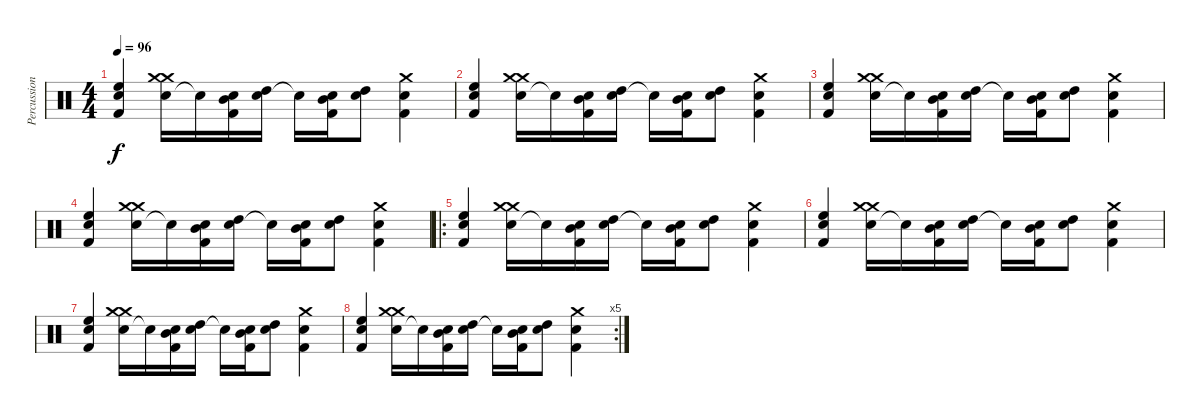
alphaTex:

\track ("Percussion" "Percussion") {instrument percussion}
\staff {score}
\articulation defaults
\ts (4 4)
\tempo 96
\clef neutral
\ks c
("Electric Snare (hit)" "High Floor Tom (hit)" "Kick (hit) 2").4{dy f} ("Electric Snare (hit)" "Crash medium (hit)" "Crash medium (hit)").16 "Electric Snare (hit)"{t}.16 ("Electric Snare (hit)" "Mid Tom (hit)" "Kick (hit) 2").16 ("Electric Snare (hit)" "High Tom (hit)").16 "Electric Snare (hit)"{t}.16 ("Electric Snare (hit)" "Mid Tom (hit)" "Kick (hit) 2").16 ("Electric Snare (hit)" "High Tom (hit)").8 ("Electric Snare (hit)" "Kick (hit) 2" "Crash medium (hit)").4 |
("Electric Snare (hit)" "High Floor Tom (hit)" "Kick (hit) 2").4 ("Electric Snare (hit)" "Crash medium (hit)" "Crash medium (hit)").16 "Electric Snare (hit)"{t}.16 ("Electric Snare (hit)" "Mid Tom (hit)" "Kick (hit) 2").16 ("Electric Snare (hit)" "High Tom (hit)").16 "Electric Snare (hit)"{t}.16 ("Electric Snare (hit)" "Mid Tom (hit)" "Kick (hit) 2").16 ("Electric Snare (hit)" "High Tom (hit)").8 ("Electric Snare (hit)" "Kick (hit) 2" "Crash medium (hit)").4 |
("Electric Snare (hit)" "High Floor Tom (hit)" "Kick (hit) 2").4 ("Electric Snare (hit)" "Crash medium (hit)" "Crash medium (hit)").16 "Electric Snare (hit)"{t}.16 ("Electric Snare (hit)" "Mid Tom (hit)" "Kick (hit) 2").16 ("Electric Snare (hit)" "High Tom (hit)").16 "Electric Snare (hit)"{t}.16 ("Electric Snare (hit)" "Mid Tom (hit)" "Kick (hit) 2").16 ("Electric Snare (hit)" "High Tom (hit)").8 ("Electric Snare (hit)" "Kick (hit) 2" "Crash medium (hit)").4 |
("Electric Snare (hit)" "High Floor Tom (hit)" "Kick (hit) 2").4 ("Electric Snare (hit)" "Crash medium (hit)" "Crash medium (hit)").16 "Electric Snare (hit)"{t}.16 ("Electric Snare (hit)" "Mid Tom (hit)" "Kick (hit) 2").16 ("Electric Snare (hit)" "High Tom (hit)").16 "Electric Snare (hit)"{t}.16 ("Electric Snare (hit)" "Mid Tom (hit)" "Kick (hit) 2").16 ("Electric Snare (hit)" "High Tom (hit)").8 ("Electric Snare (hit)" "Kick (hit) 2" "Crash medium (hit)").4 |
\ro
("Electric Snare (hit)" "High Floor Tom (hit)" "Kick (hit) 2").4 ("Electric Snare (hit)" "Crash medium (hit)" "Crash medium (hit)").16 "Electric Snare (hit)"{t}.16 ("Electric Snare (hit)" "Mid Tom (hit)" "Kick (hit) 2").16 ("Electric Snare (hit)" "High Tom (hit)").16 "Electric Snare (hit)"{t}.16 ("Electric Snare (hit)" "Mid Tom (hit)" "Kick (hit) 2").16 ("Electric Snare (hit)" "High Tom (hit)").8 ("Electric Snare (hit)" "Kick (hit) 2" "Crash medium (hit)").4 |
("Electric Snare (hit)" "High Floor Tom (hit)" "Kick (hit) 2").4 ("Electric Snare (hit)" "Crash medium (hit)" "Crash medium (hit)").16 "Electric Snare (hit)"{t}.16 ("Electric Snare (hit)" "Mid Tom (hit)" "Kick (hit) 2").16 ("Electric Snare (hit)" "High Tom (hit)").16 "Electric Snare (hit)"{t}.16 ("Electric Snare (hit)" "Mid Tom (hit)" "Kick (hit) 2").16 ("Electric Snare (hit)" "High Tom (hit)").8 ("Electric Snare (hit)" "Kick (hit) 2" "Crash medium (hit)").4 |
("Electric Snare (hit)" "High Floor Tom (hit)" "Kick (hit) 2").4 ("Electric Snare (hit)" "Crash medium (hit)" "Crash medium (hit)").16 "Electric Snare (hit)"{t}.16 ("Electric Snare (hit)" "Mid Tom (hit)" "Kick (hit) 2").16 ("Electric Snare (hit)" "High Tom (hit)").16 "Electric Snare (hit)"{t}.16 ("Electric Snare (hit)" "Mid Tom (hit)" "Kick (hit) 2").16 ("Electric Snare (hit)" "High Tom (hit)").8 ("Electric Snare (hit)" "Kick (hit) 2" "Crash medium (hit)").4 |
\rc 5
("Electric Snare (hit)" "High Floor Tom (hit)" "Kick (hit) 2").4 ("Electric Snare (hit)" "Crash medium (hit)" "Crash medium (hit)").16 "Electric Snare (hit)"{t}.16 ("Electric Snare (hit)" "Mid Tom (hit)" "Kick (hit) 2").16 ("Electric Snare (hit)" "High Tom (hit)").16 "Electric Snare (hit)"{t}.16 ("Electric Snare (hit)" "Mid Tom (hit)" "Kick (hit) 2").16 ("Electric Snare (hit)" "High Tom (hit)").8 ("Electric Snare (hit)" "Kick (hit) 2" "Crash medium (hit)").4
